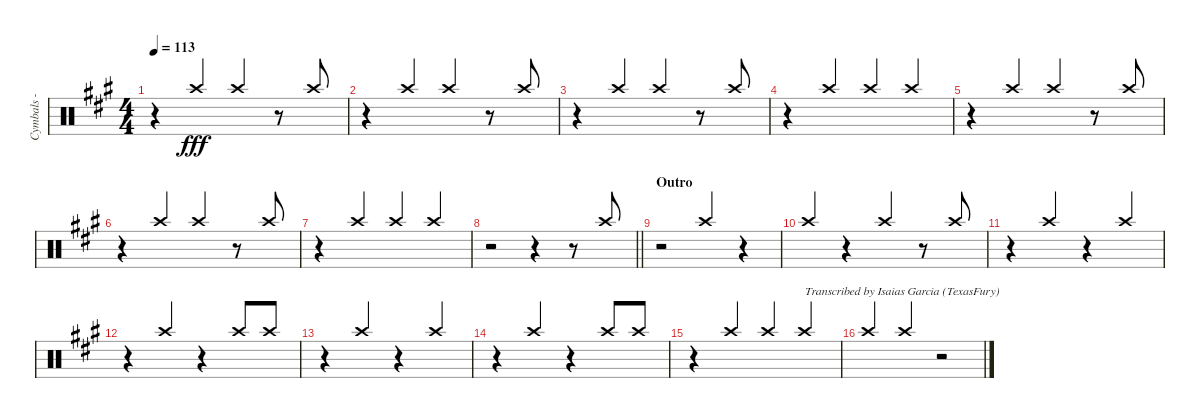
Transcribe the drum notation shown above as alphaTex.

\track ("Cymbals - crash" "Cymbals - ") {instrument percussion}
\staff {score}
\articulation defaults
\ts (4 4)
\tempo 113
\clef neutral
\ks f#minor
r.4{dy fff} "Crash high (hit)".4{beam Up} "Crash high (hit)".4{beam Up} r.8 "Crash high (hit)".8{beam Up} |
r.4 "Crash high (hit)".4{beam Up} "Crash high (hit)".4{beam Up} r.8 "Crash high (hit)".8{beam Up} |
r.4 "Crash high (hit)".4{beam Up} "Crash high (hit)".4{beam Up} r.8 "Crash high (hit)".8{beam Up} |
r.4 "Crash high (hit)".4{beam Up} "Crash high (hit)".4{beam Up} "Crash high (hit)".4{beam Up} |
r.4 "Crash high (hit)".4{beam Up} "Crash high (hit)".4{beam Up} r.8 "Crash high (hit)".8{beam Up} |
r.4 "Crash high (hit)".4{beam Up} "Crash high (hit)".4{beam Up} r.8 "Crash high (hit)".8{beam Up} |
r.4 "Crash high (hit)".4{beam Up} "Crash high (hit)".4{beam Up} "Crash high (hit)".4{beam Up} |
\barLineRight lightlight
r.2 r.4 r.8 "Crash high (hit)".8{beam Up} |
\section ("" "Outro")
r.2 "Crash high (hit)".4{beam Up} r.4 |
"Crash high (hit)".4{beam Up} r.4 "Crash high (hit)".4{beam Up} r.8 "Crash high (hit)".8{beam Up} |
r.4 "Crash high (hit)".4{beam Up} r.4 "Crash high (hit)".4{beam Up} |
r.4 "Crash high (hit)".4{beam Up} r.4 "Crash high (hit)".8{beam Up} "Crash high (hit)".8{beam Up} |
r.4 "Crash high (hit)".4{beam Up} r.4 "Crash high (hit)".4{beam Up} |
r.4 "Crash high (hit)".4{beam Up} r.4 "Crash high (hit)".8{beam Up} "Crash high (hit)".8{beam Up} |
r.4 "Crash high (hit)".4{beam Up} "Crash high (hit)".4{beam Up} "Crash high (hit)".4{txt "Transcribed by Isaias Garcia (TexasFury)" beam Up} |
"Crash high (hit)".4{beam Up} "Crash high (hit)".4{beam Up} r.2{volume 0}
